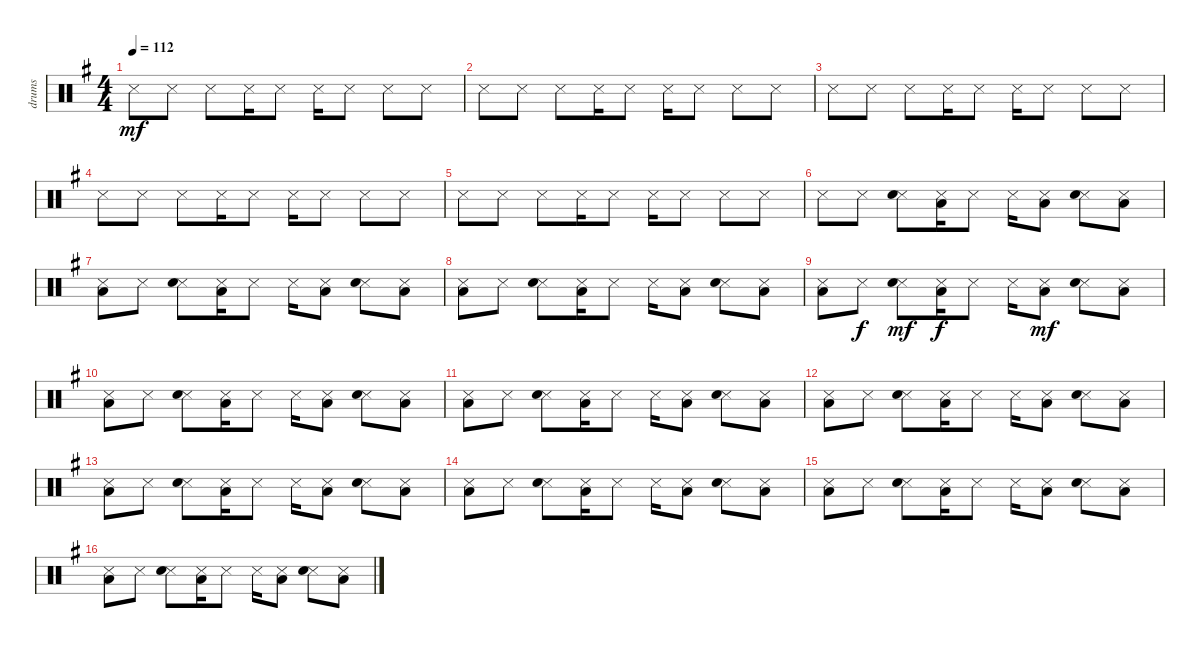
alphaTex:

\track ("drums" "drums") {instrument percussion}
\staff {score}
\articulation defaults
\ts (4 4)
\tempo 112
\clef neutral
\ks g "Snare (side stick) 3".8{dy mf} "Snare (side stick) 3".8 "Snare (side stick) 3".8 "Snare (side stick) 3".16 "Snare (side stick) 3".8 "Snare (side stick) 3".16 "Snare (side stick) 3".8 "Snare (side stick) 3".8 "Snare (side stick) 3".8
|
"Snare (side stick) 3".8 "Snare (side stick) 3".8 "Snare (side stick) 3".8 "Snare (side stick) 3".16 "Snare (side stick) 3".8 "Snare (side stick) 3".16 "Snare (side stick) 3".8 "Snare (side stick) 3".8 "Snare (side stick) 3".8 |
"Snare (side stick) 3".8 "Snare (side stick) 3".8 "Snare (side stick) 3".8 "Snare (side stick) 3".16 "Snare (side stick) 3".8 "Snare (side stick) 3".16 "Snare (side stick) 3".8 "Snare (side stick) 3".8 "Snare (side stick) 3".8 |
"Snare (side stick) 3".8 "Snare (side stick) 3".8 "Snare (side stick) 3".8 "Snare (side stick) 3".16 "Snare (side stick) 3".8 "Snare (side stick) 3".16 "Snare (side stick) 3".8 "Snare (side stick) 3".8 "Snare (side stick) 3".8 |
"Snare (side stick) 3".8 "Snare (side stick) 3".8 "Snare (side stick) 3".8 "Snare (side stick) 3".16 "Snare (side stick) 3".8 "Snare (side stick) 3".16 "Snare (side stick) 3".8 "Snare (side stick) 3".8 "Snare (side stick) 3".8 |
"Snare (side stick) 3".8 "Snare (side stick) 3".8 ("Snare (side stick) 3" "Snare (hit) 2").8 ("Snare (side stick) 3" "Low Floor Tom (hit)").16 "Snare (side stick) 3".8 "Snare (side stick) 3".16 ("Snare (side stick) 3" "Low Floor Tom (hit)").8 ("Snare (side stick) 3" "Snare (hit) 2").8 ("Snare (side stick) 3" "Low Floor Tom (hit)").8 |
("Snare (side stick) 3" "Low Floor Tom (hit)").8 "Snare (side stick) 3".8 ("Snare (side stick) 3" "Snare (hit) 2").8 ("Snare (side stick) 3" "Low Floor Tom (hit)").16 "Snare (side stick) 3".8 "Snare (side stick) 3".16 ("Snare (side stick) 3" "Low Floor Tom (hit)").8 ("Snare (side stick) 3" "Snare (hit) 2").8 ("Snare (side stick) 3" "Low Floor Tom (hit)").8 |
("Snare (side stick) 3" "Low Floor Tom (hit)").8 "Snare (side stick) 3".8 ("Snare (side stick) 3" "Snare (hit) 2").8 ("Snare (side stick) 3" "Low Floor Tom (hit)").16 "Snare (side stick) 3".8 "Snare (side stick) 3".16 ("Snare (side stick) 3" "Low Floor Tom (hit)").8 ("Snare (side stick) 3" "Snare (hit) 2").8 ("Snare (side stick) 3" "Low Floor Tom (hit)").8 |
("Snare (side stick) 3" "Low Floor Tom (hit)").8 "Snare (side stick) 3".8{dy f} ("Snare (side stick) 3" "Snare (hit) 2").8{dy mf} ("Snare (side stick) 3" "Low Floor Tom (hit)").16{dy f} "Snare (side stick) 3".8 "Snare (side stick) 3".16 ("Snare (side stick) 3" "Low Floor Tom (hit)").8{dy mf} ("Snare (side stick) 3" "Snare (hit) 2").8 ("Snare (side stick) 3" "Low Floor Tom (hit)").8 |
("Snare (side stick) 3" "Low Floor Tom (hit)").8 "Snare (side stick) 3".8 ("Snare (side stick) 3" "Snare (hit) 2").8 ("Snare (side stick) 3" "Low Floor Tom (hit)").16 "Snare (side stick) 3".8 "Snare (side stick) 3".16 ("Snare (side stick) 3" "Low Floor Tom (hit)").8 ("Snare (side stick) 3" "Snare (hit) 2").8 ("Snare (side stick) 3" "Low Floor Tom (hit)").8 |
("Snare (side stick) 3" "Low Floor Tom (hit)").8 "Snare (side stick) 3".8 ("Snare (side stick) 3" "Snare (hit) 2").8 ("Snare (side stick) 3" "Low Floor Tom (hit)").16 "Snare (side stick) 3".8 "Snare (side stick) 3".16 ("Snare (side stick) 3" "Low Floor Tom (hit)").8 ("Snare (side stick) 3" "Snare (hit) 2").8 ("Snare (side stick) 3" "Low Floor Tom (hit)").8 |
("Snare (side stick) 3" "Low Floor Tom (hit)").8 "Snare (side stick) 3".8 ("Snare (side stick) 3" "Snare (hit) 2").8 ("Snare (side stick) 3" "Low Floor Tom (hit)").16 "Snare (side stick) 3".8 "Snare (side stick) 3".16 ("Snare (side stick) 3" "Low Floor Tom (hit)").8 ("Snare (side stick) 3" "Snare (hit) 2").8 ("Snare (side stick) 3" "Low Floor Tom (hit)").8 |
("Snare (side stick) 3" "Low Floor Tom (hit)").8 "Snare (side stick) 3".8 ("Snare (side stick) 3" "Snare (hit) 2").8 ("Snare (side stick) 3" "Low Floor Tom (hit)").16 "Snare (side stick) 3".8 "Snare (side stick) 3".16 ("Snare (side stick) 3" "Low Floor Tom (hit)").8 ("Snare (side stick) 3" "Snare (hit) 2").8 ("Snare (side stick) 3" "Low Floor Tom (hit)").8 |
("Snare (side stick) 3" "Low Floor Tom (hit)").8 "Snare (side stick) 3".8 ("Snare (side stick) 3" "Snare (hit) 2").8 ("Snare (side stick) 3" "Low Floor Tom (hit)").16 "Snare (side stick) 3".8 "Snare (side stick) 3".16 ("Snare (side stick) 3" "Low Floor Tom (hit)").8 ("Snare (side stick) 3" "Snare (hit) 2").8 ("Snare (side stick) 3" "Low Floor Tom (hit)").8 |
("Snare (side stick) 3" "Low Floor Tom (hit)").8 "Snare (side stick) 3".8 ("Snare (side stick) 3" "Snare (hit) 2").8 ("Snare (side stick) 3" "Low Floor Tom (hit)").16 "Snare (side stick) 3".8 "Snare (side stick) 3".16 ("Snare (side stick) 3" "Low Floor Tom (hit)").8 ("Snare (side stick) 3" "Snare (hit) 2").8 ("Snare (side stick) 3" "Low Floor Tom (hit)").8 |
("Snare (side stick) 3" "Low Floor Tom (hit)").8 "Snare (side stick) 3".8 ("Snare (side stick) 3" "Snare (hit) 2").8 ("Snare (side stick) 3" "Low Floor Tom (hit)").16 "Snare (side stick) 3".8 "Snare (side stick) 3".16 ("Snare (side stick) 3" "Low Floor Tom (hit)").8 ("Snare (side stick) 3" "Snare (hit) 2").8 ("Snare (side stick) 3" "Low Floor Tom (hit)").8
